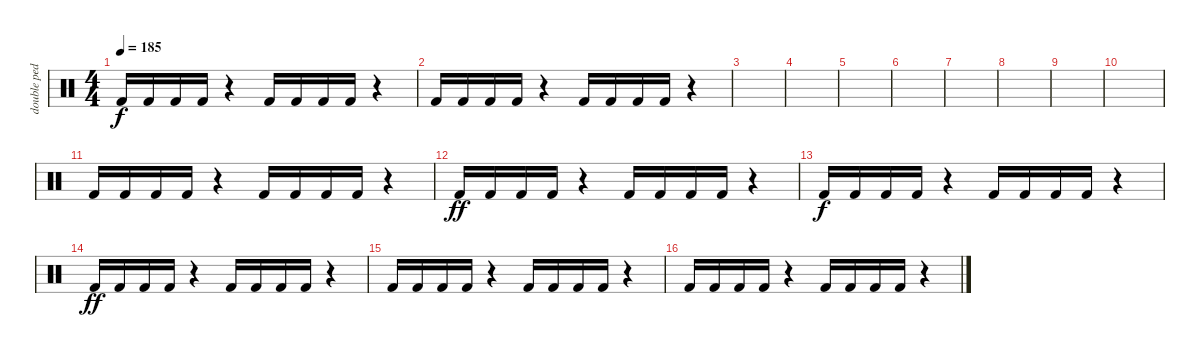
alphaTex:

\track ("double pedale" "double ped") {instrument percussion}
\staff {score}
\articulation defaults
\ts (4 4)
\tempo 185
\clef neutral
\ks c "Kick (hit) 2".16{dy f} "Kick (hit) 2".16 "Kick (hit) 2".16 "Kick (hit) 2".16
r.4 "Kick (hit) 2".16 "Kick (hit) 2".16 "Kick (hit) 2".16 "Kick (hit) 2".16 r.4 |
"Kick (hit) 2".16 "Kick (hit) 2".16 "Kick (hit) 2".16 "Kick (hit) 2".16 r.4 "Kick (hit) 2".16 "Kick (hit) 2".16 "Kick (hit) 2".16 "Kick (hit) 2".16 r.4 |
|
|
|
|
|
|
|
|
"Kick (hit) 2".16 "Kick (hit) 2".16 "Kick (hit) 2".16 "Kick (hit) 2".16 r.4 "Kick (hit) 2".16 "Kick (hit) 2".16 "Kick (hit) 2".16 "Kick (hit) 2".16 r.4 |
"Kick (hit) 2".16{dy ff} "Kick (hit) 2".16 "Kick (hit) 2".16 "Kick (hit) 2".16 r.4 "Kick (hit) 2".16 "Kick (hit) 2".16 "Kick (hit) 2".16 "Kick (hit) 2".16 r.4 |
"Kick (hit) 2".16{dy f} "Kick (hit) 2".16 "Kick (hit) 2".16 "Kick (hit) 2".16 r.4 "Kick (hit) 2".16 "Kick (hit) 2".16 "Kick (hit) 2".16 "Kick (hit) 2".16 r.4 |
"Kick (hit) 2".16{dy ff} "Kick (hit) 2".16 "Kick (hit) 2".16 "Kick (hit) 2".16 r.4 "Kick (hit) 2".16 "Kick (hit) 2".16 "Kick (hit) 2".16 "Kick (hit) 2".16 r.4 |
"Kick (hit) 2".16 "Kick (hit) 2".16 "Kick (hit) 2".16 "Kick (hit) 2".16 r.4 "Kick (hit) 2".16 "Kick (hit) 2".16 "Kick (hit) 2".16 "Kick (hit) 2".16 r.4 |
"Kick (hit) 2".16 "Kick (hit) 2".16 "Kick (hit) 2".16 "Kick (hit) 2".16 r.4 "Kick (hit) 2".16 "Kick (hit) 2".16 "Kick (hit) 2".16 "Kick (hit) 2".16 r.4
